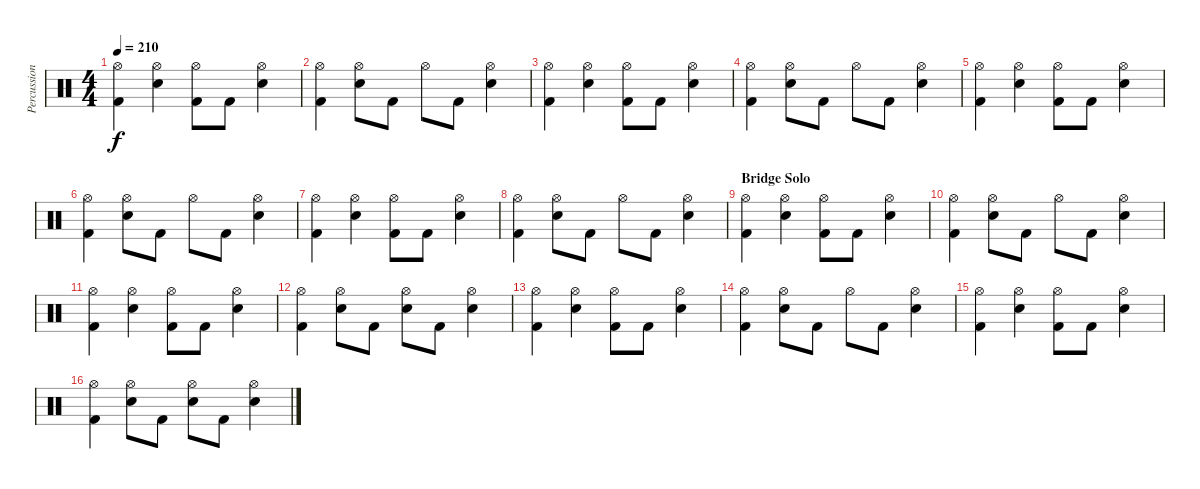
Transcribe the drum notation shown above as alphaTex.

\track ("Percussion" "Percussion") {instrument percussion}
\staff {score}
\articulation defaults
\ts (4 4)
\tempo 210
\clef neutral
\ks c
("Kick (hit) 2" "Hi-Hat (open)").4{dy f} ("Electric Snare (hit)" "Hi-Hat (open)").4 ("Kick (hit) 2" "Hi-Hat (open)").8 "Kick (hit) 2".8 ("Electric Snare (hit)" "Hi-Hat (open)").4 |
("Kick (hit) 2" "Hi-Hat (open)").4 ("Electric Snare (hit)" "Hi-Hat (open)").8 "Kick (hit) 2".8 "Hi-Hat (open)".8 "Kick (hit) 2".8 ("Electric Snare (hit)" "Hi-Hat (open)").4 |
("Kick (hit) 2" "Hi-Hat (open)").4 ("Electric Snare (hit)" "Hi-Hat (open)").4 ("Kick (hit) 2" "Hi-Hat (open)").8 "Kick (hit) 2".8 ("Electric Snare (hit)" "Hi-Hat (open)").4 |
("Kick (hit) 2" "Hi-Hat (open)").4 ("Electric Snare (hit)" "Hi-Hat (open)").8 "Kick (hit) 2".8 "Hi-Hat (open)".8 "Kick (hit) 2".8 ("Electric Snare (hit)" "Hi-Hat (open)").4 |
("Kick (hit) 2" "Hi-Hat (open)").4 ("Electric Snare (hit)" "Hi-Hat (open)").4 ("Kick (hit) 2" "Hi-Hat (open)").8 "Kick (hit) 2".8 ("Electric Snare (hit)" "Hi-Hat (open)").4 |
("Kick (hit) 2" "Hi-Hat (open)").4 ("Electric Snare (hit)" "Hi-Hat (open)").8 "Kick (hit) 2".8 "Hi-Hat (open)".8 "Kick (hit) 2".8 ("Electric Snare (hit)" "Hi-Hat (open)").4 |
("Kick (hit) 2" "Hi-Hat (open)").4 ("Electric Snare (hit)" "Hi-Hat (open)").4 ("Kick (hit) 2" "Hi-Hat (open)").8 "Kick (hit) 2".8 ("Electric Snare (hit)" "Hi-Hat (open)").4 |
("Kick (hit) 2" "Hi-Hat (open)").4 ("Electric Snare (hit)" "Hi-Hat (open)").8 "Kick (hit) 2".8 "Hi-Hat (open)".8 "Kick (hit) 2".8 ("Electric Snare (hit)" "Hi-Hat (open)").4 |
\section ("" "Bridge Solo")
("Kick (hit) 2" "Hi-Hat (open)").4 ("Electric Snare (hit)" "Hi-Hat (open)").4 ("Kick (hit) 2" "Hi-Hat (open)").8 "Kick (hit) 2".8 ("Electric Snare (hit)" "Hi-Hat (open)").4 |
("Kick (hit) 2" "Hi-Hat (open)").4 ("Electric Snare (hit)" "Hi-Hat (open)").8 "Kick (hit) 2".8 "Hi-Hat (open)".8 "Kick (hit) 2".8 ("Electric Snare (hit)" "Hi-Hat (open)").4 |
("Kick (hit) 2" "Hi-Hat (open)").4 ("Electric Snare (hit)" "Hi-Hat (open)").4 ("Kick (hit) 2" "Hi-Hat (open)").8 "Kick (hit) 2".8 ("Electric Snare (hit)" "Hi-Hat (open)").4 |
("Kick (hit) 2" "Hi-Hat (open)").4 ("Electric Snare (hit)" "Hi-Hat (open)").8 "Kick (hit) 2".8 ("Electric Snare (hit)" "Hi-Hat (open)").8 "Kick (hit) 2".8 ("Electric Snare (hit)" "Hi-Hat (open)").4 |
("Kick (hit) 2" "Hi-Hat (open)").4 ("Electric Snare (hit)" "Hi-Hat (open)").4 ("Kick (hit) 2" "Hi-Hat (open)").8 "Kick (hit) 2".8 ("Electric Snare (hit)" "Hi-Hat (open)").4 |
("Kick (hit) 2" "Hi-Hat (open)").4 ("Electric Snare (hit)" "Hi-Hat (open)").8 "Kick (hit) 2".8 "Hi-Hat (open)".8 "Kick (hit) 2".8 ("Electric Snare (hit)" "Hi-Hat (open)").4 |
("Kick (hit) 2" "Hi-Hat (open)").4 ("Electric Snare (hit)" "Hi-Hat (open)").4 ("Kick (hit) 2" "Hi-Hat (open)").8 "Kick (hit) 2".8 ("Electric Snare (hit)" "Hi-Hat (open)").4 |
("Kick (hit) 2" "Hi-Hat (open)").4 ("Electric Snare (hit)" "Hi-Hat (open)").8 "Kick (hit) 2".8 ("Electric Snare (hit)" "Hi-Hat (open)").8 "Kick (hit) 2".8 ("Electric Snare (hit)" "Hi-Hat (open)").4
